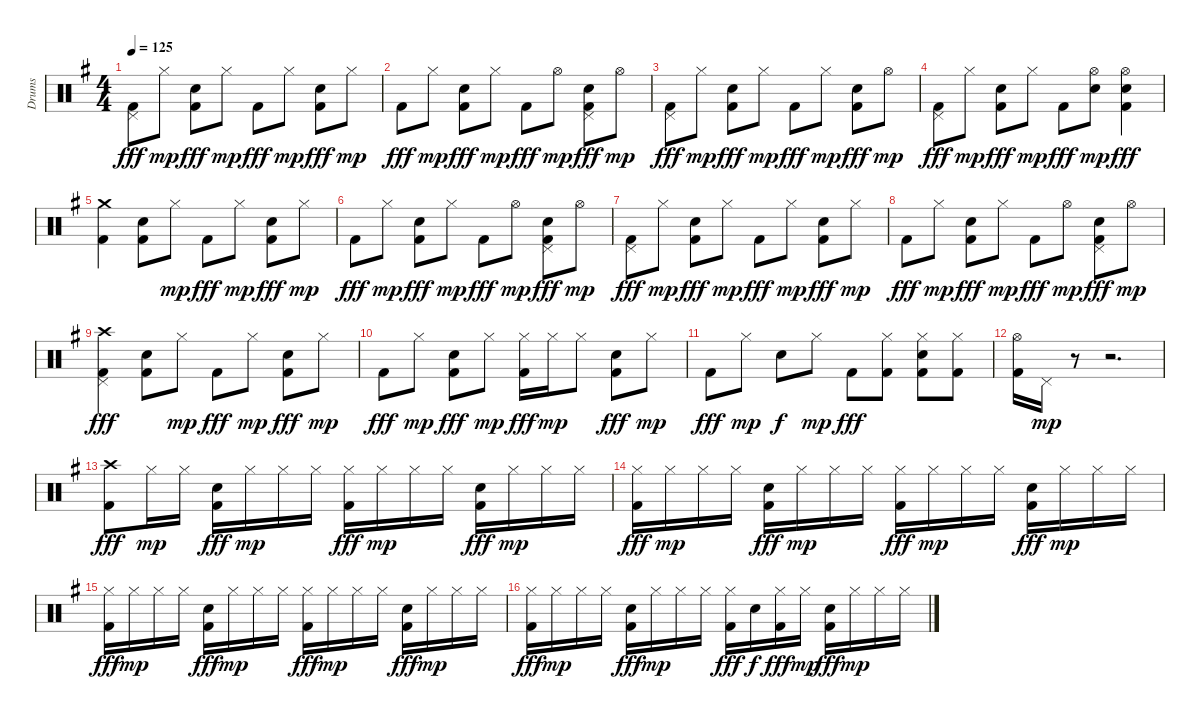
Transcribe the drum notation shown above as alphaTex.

\track ("Drums" "Drums") {instrument percussion}
\staff {score}
\articulation defaults
\ts (4 4)
\tempo 125
\clef neutral
\ks eminor
("Pedal Hi-Hat (hit)" "Kick (hit) 2").8{dy fff} "Hi-Hat (closed)".8{dy mp} ("Electric Snare (hit)" "Kick (hit) 2").8{dy fff} "Hi-Hat (closed)".8{dy mp} "Kick (hit) 2".8{dy fff} "Hi-Hat (closed)".8{dy mp} ("Electric Snare (hit)" "Kick (hit) 2").8{dy fff} "Hi-Hat (closed)".8{dy mp} |
"Kick (hit) 2".8{dy fff} "Hi-Hat (closed)".8{dy mp} ("Electric Snare (hit)" "Kick (hit) 2").8{dy fff} "Hi-Hat (closed)".8{dy mp} "Kick (hit) 2".8{dy fff} "Hi-Hat (open)".8{dy mp} ("Pedal Hi-Hat (hit)" "Electric Snare (hit)" "Kick (hit) 2").8{dy fff} "Hi-Hat (open)".8{dy mp} |
("Pedal Hi-Hat (hit)" "Kick (hit) 2").8{dy fff} "Hi-Hat (closed)".8{dy mp} ("Electric Snare (hit)" "Kick (hit) 2").8{dy fff} "Hi-Hat (closed)".8{dy mp} "Kick (hit) 2".8{dy fff} "Hi-Hat (closed)".8{dy mp} ("Electric Snare (hit)" "Kick (hit) 2").8{dy fff} "Hi-Hat (open)".8{dy mp} |
("Pedal Hi-Hat (hit)" "Kick (hit) 2").8{dy fff} "Hi-Hat (closed)".8{dy mp} ("Electric Snare (hit)" "Kick (hit) 2").8{dy fff} "Hi-Hat (closed)".8{dy mp} "Kick (hit) 2".8{dy fff} ("Hi-Hat (open)" "Electric Snare (hit)").8{dy mp} ("Hi-Hat (open)" "Electric Snare (hit)" "Kick (hit) 2").4{dy fff} |
("Crash medium (hit)" "Kick (hit) 2").4 ("Electric Snare (hit)" "Kick (hit) 2").8 "Hi-Hat (closed)".8{dy mp} "Kick (hit) 2".8{dy fff} "Hi-Hat (closed)".8{dy mp} ("Electric Snare (hit)" "Kick (hit) 2").8{dy fff} "Hi-Hat (closed)".8{dy mp} |
"Kick (hit) 2".8{dy fff} "Hi-Hat (closed)".8{dy mp} ("Electric Snare (hit)" "Kick (hit) 2").8{dy fff} "Hi-Hat (closed)".8{dy mp} "Kick (hit) 2".8{dy fff} "Hi-Hat (open)".8{dy mp} ("Pedal Hi-Hat (hit)" "Electric Snare (hit)" "Kick (hit) 2").8{dy fff} "Hi-Hat (open)".8{dy mp} |
("Pedal Hi-Hat (hit)" "Kick (hit) 2").8{dy fff} "Hi-Hat (closed)".8{dy mp} ("Electric Snare (hit)" "Kick (hit) 2").8{dy fff} "Hi-Hat (closed)".8{dy mp} "Kick (hit) 2".8{dy fff} "Hi-Hat (closed)".8{dy mp} ("Electric Snare (hit)" "Kick (hit) 2").8{dy fff} "Hi-Hat (closed)".8{dy mp} |
"Kick (hit) 2".8{dy fff} "Hi-Hat (closed)".8{dy mp} ("Electric Snare (hit)" "Kick (hit) 2").8{dy fff} "Hi-Hat (closed)".8{dy mp} "Kick (hit) 2".8{dy fff} "Hi-Hat (open)".8{dy mp} ("Pedal Hi-Hat (hit)" "Electric Snare (hit)" "Kick (hit) 2").8{dy fff} "Hi-Hat (open)".8{dy mp} |
("Crash high (hit)" "Pedal Hi-Hat (hit)" "Kick (hit) 2").4{dy fff} ("Electric Snare (hit)" "Kick (hit) 2").8 "Hi-Hat (closed)".8{dy mp} "Kick (hit) 2".8{dy fff} "Hi-Hat (closed)".8{dy mp} ("Electric Snare (hit)" "Kick (hit) 2").8{dy fff} "Hi-Hat (closed)".8{dy mp} |
"Kick (hit) 2".8{dy fff} "Hi-Hat (closed)".8{dy mp} ("Electric Snare (hit)" "Kick (hit) 2").8{dy fff} "Hi-Hat (closed)".8{dy mp} ("Hi-Hat (closed)" "Kick (hit) 2").16{dy fff} "Hi-Hat (closed)".16{dy mp} "Hi-Hat (closed)".8 ("Electric Snare (hit)" "Kick (hit) 2").8{dy fff} "Hi-Hat (closed)".8{dy mp} |
"Kick (hit) 2".8{dy fff} "Hi-Hat (closed)".8{dy mp} "Electric Snare (hit)".8{dy f} "Hi-Hat (closed)".8{dy mp} "Kick (hit) 2".8{dy fff} ("Hi-Hat (closed)" "Kick (hit) 2").8 ("Hi-Hat (closed)" "Electric Snare (hit)" "Kick (hit) 2").8 ("Hi-Hat (closed)" "Kick (hit) 2").8 |
("Hi-Hat (open)" "Kick (hit) 2").16 "Pedal Hi-Hat (hit)".16{dy mp} r.8 r.2{d} |
("Crash high (hit)" "Kick (hit) 2").8{dy fff} "Hi-Hat (closed)".16{dy mp} "Hi-Hat (closed)".16 ("Electric Snare (hit)" "Kick (hit) 2").16{dy fff} "Hi-Hat (closed)".16{dy mp} "Hi-Hat (closed)".16 "Hi-Hat (closed)".16 ("Hi-Hat (closed)" "Kick (hit) 2").16{dy fff} "Hi-Hat (closed)".16{dy mp} "Hi-Hat (closed)".16 "Hi-Hat (closed)".16 ("Electric Snare (hit)" "Kick (hit) 2").16{dy fff} "Hi-Hat (closed)".16{dy mp} "Hi-Hat (closed)".16 "Hi-Hat (closed)".16 |
("Hi-Hat (closed)" "Kick (hit) 2").16{dy fff} "Hi-Hat (closed)".16{dy mp} "Hi-Hat (closed)".16 "Hi-Hat (closed)".16 ("Electric Snare (hit)" "Kick (hit) 2").16{dy fff} "Hi-Hat (closed)".16{dy mp} "Hi-Hat (closed)".16 "Hi-Hat (closed)".16 ("Hi-Hat (closed)" "Kick (hit) 2").16{dy fff} "Hi-Hat (closed)".16{dy mp} "Hi-Hat (closed)".16 "Hi-Hat (closed)".16 ("Electric Snare (hit)" "Kick (hit) 2").16{dy fff} "Hi-Hat (closed)".16{dy mp} "Hi-Hat (closed)".16 "Hi-Hat (closed)".16 |
("Hi-Hat (closed)" "Kick (hit) 2").16{dy fff} "Hi-Hat (closed)".16{dy mp} "Hi-Hat (closed)".16 "Hi-Hat (closed)".16 ("Electric Snare (hit)" "Kick (hit) 2").16{dy fff} "Hi-Hat (closed)".16{dy mp} "Hi-Hat (closed)".16 "Hi-Hat (closed)".16 ("Hi-Hat (closed)" "Kick (hit) 2").16{dy fff} "Hi-Hat (closed)".16{dy mp} "Hi-Hat (closed)".16 "Hi-Hat (closed)".16 ("Electric Snare (hit)" "Kick (hit) 2").16{dy fff} "Hi-Hat (closed)".16{dy mp} "Hi-Hat (closed)".16 "Hi-Hat (closed)".16 |
("Hi-Hat (closed)" "Kick (hit) 2").16{dy fff} "Hi-Hat (closed)".16{dy mp} "Hi-Hat (closed)".16 "Hi-Hat (closed)".16 ("Electric Snare (hit)" "Kick (hit) 2").16{dy fff} "Hi-Hat (closed)".16{dy mp} "Hi-Hat (closed)".16 "Hi-Hat (closed)".16 ("Hi-Hat (closed)" "Kick (hit) 2").16{dy fff} "Electric Snare (hit)".16{dy f} ("Hi-Hat (closed)" "Kick (hit) 2").16{dy fff} "Hi-Hat (closed)".16{dy mp} ("Electric Snare (hit)" "Kick (hit) 2").16{dy fff} "Hi-Hat (closed)".16{dy mp} "Hi-Hat (closed)".16 "Hi-Hat (closed)".16
